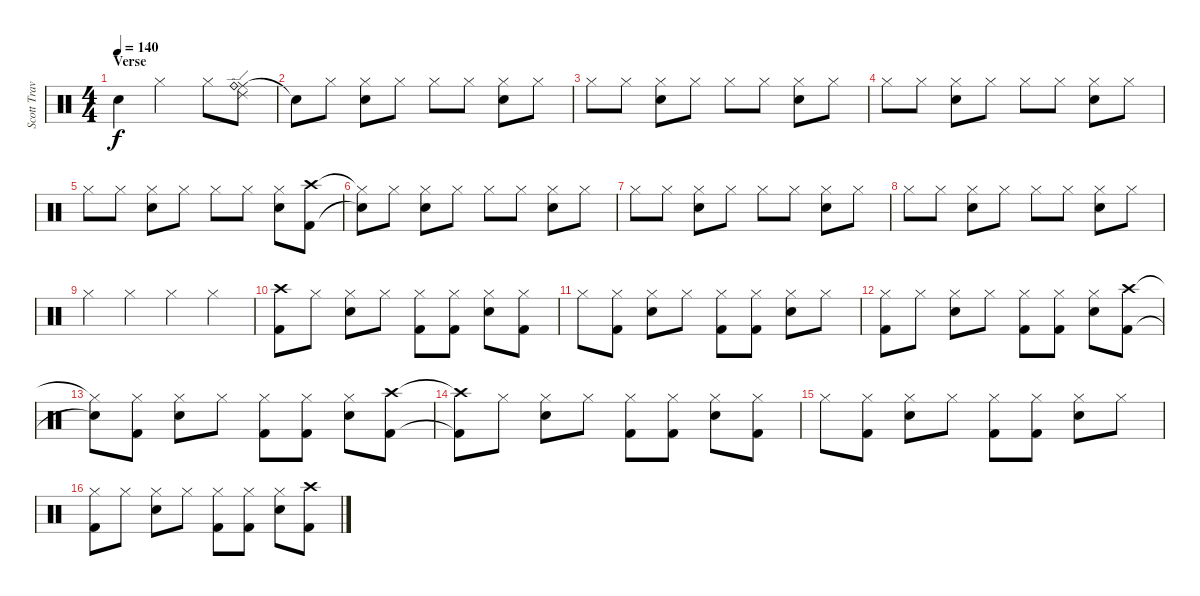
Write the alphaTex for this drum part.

\track ("Scott Travis" "Scott Trav") {instrument percussion}
\staff {score}
\articulation defaults
\ts (4 4)
\section ("" "Verse")
\tempo 140
\clef neutral
\ks c "Snare (hit)"{t}.4{dy f} "Hi-Hat (closed)".2 "Hi-Hat (closed)".8
("Ride (middle)" "Ride (bell)" "Ride (edge) 2").8 |
"Snare (hit)"{t}.8 "Hi-Hat (closed)".8 ("Hi-Hat (closed)" "Snare (hit) 2").8 "Hi-Hat (closed)".8 "Hi-Hat (closed)".8 "Hi-Hat (closed)".8 ("Hi-Hat (closed)" "Snare (hit) 2").8 "Hi-Hat (closed)".8 |
"Hi-Hat (closed)".8 "Hi-Hat (closed)".8 ("Hi-Hat (closed)" "Snare (hit) 2").8 "Hi-Hat (closed)".8 "Hi-Hat (closed)".8 "Hi-Hat (closed)".8 ("Hi-Hat (closed)" "Snare (hit) 2").8 "Hi-Hat (closed)".8 |
"Hi-Hat (closed)".8 "Hi-Hat (closed)".8 ("Hi-Hat (closed)" "Snare (hit) 2").8 "Hi-Hat (closed)".8 "Hi-Hat (closed)".8 "Hi-Hat (closed)".8 ("Hi-Hat (closed)" "Snare (hit) 2").8 "Hi-Hat (closed)".8 |
"Hi-Hat (closed)".8 "Hi-Hat (closed)".8 ("Hi-Hat (closed)" "Snare (hit) 2").8 "Hi-Hat (closed)".8 "Hi-Hat (closed)".8 "Hi-Hat (closed)".8 ("Hi-Hat (closed)" "Snare (hit) 2").8 ("Crash high (hit)" "Kick (hit) 2").8 |
("Hi-Hat (closed)"{t} "Snare (hit)"{t}).8 "Hi-Hat (closed)".8 ("Hi-Hat (closed)" "Snare (hit) 2").8 "Hi-Hat (closed)".8 "Hi-Hat (closed)".8 "Hi-Hat (closed)".8 ("Hi-Hat (closed)" "Snare (hit) 2").8 "Hi-Hat (closed)".8 |
"Hi-Hat (closed)".8 "Hi-Hat (closed)".8 ("Hi-Hat (closed)" "Snare (hit) 2").8 "Hi-Hat (closed)".8 "Hi-Hat (closed)".8 "Hi-Hat (closed)".8 ("Hi-Hat (closed)" "Snare (hit) 2").8 "Hi-Hat (closed)".8 |
"Hi-Hat (closed)".8 "Hi-Hat (closed)".8 ("Hi-Hat (closed)" "Snare (hit) 2").8 "Hi-Hat (closed)".8 "Hi-Hat (closed)".8 "Hi-Hat (closed)".8 ("Hi-Hat (closed)" "Snare (hit) 2").8 "Hi-Hat (closed)".8 |
"Hi-Hat (closed)".4 "Hi-Hat (closed)".4 "Hi-Hat (closed)".4 "Hi-Hat (closed)".4 |
("Crash high (hit)" "Kick (hit) 2").8 "Hi-Hat (closed)".8 ("Hi-Hat (closed)" "Snare (hit) 2").8 "Hi-Hat (closed)".8 ("Hi-Hat (closed)" "Kick (hit) 2").8 ("Hi-Hat (closed)" "Kick (hit) 2").8 ("Hi-Hat (closed)" "Snare (hit) 2").8 ("Hi-Hat (closed)" "Kick (hit) 2").8 |
"Hi-Hat (closed)".8 ("Hi-Hat (closed)" "Kick (hit) 2").8 ("Hi-Hat (closed)" "Snare (hit) 2").8 "Hi-Hat (closed)".8 ("Hi-Hat (closed)" "Kick (hit) 2").8 ("Hi-Hat (closed)" "Kick (hit) 2").8 ("Hi-Hat (closed)" "Snare (hit) 2").8 "Hi-Hat (closed)".8 |
("Hi-Hat (closed)" "Kick (hit) 2").8 "Hi-Hat (closed)".8 ("Hi-Hat (closed)" "Snare (hit) 2").8 "Hi-Hat (closed)".8 ("Hi-Hat (closed)" "Kick (hit) 2").8 ("Hi-Hat (closed)" "Kick (hit) 2").8 ("Hi-Hat (closed)" "Snare (hit) 2").8 ("Crash high (hit)" "Kick (hit) 2").8 |
("Hi-Hat (closed)"{t} "Snare (hit)"{t}).8 ("Hi-Hat (closed)" "Kick (hit) 2").8 ("Hi-Hat (closed)" "Snare (hit) 2").8 "Hi-Hat (closed)".8 ("Hi-Hat (closed)" "Kick (hit) 2").8 ("Hi-Hat (closed)" "Kick (hit) 2").8 ("Hi-Hat (closed)" "Snare (hit) 2").8 ("Crash high (hit)" "Kick (hit) 2").8 |
("Crash high (hit)"{t} "Kick (hit) 2"{t}).8 "Hi-Hat (closed)".8 ("Hi-Hat (closed)" "Snare (hit) 2").8 "Hi-Hat (closed)".8 ("Hi-Hat (closed)" "Kick (hit) 2").8 ("Hi-Hat (closed)" "Kick (hit) 2").8 ("Hi-Hat (closed)" "Snare (hit) 2").8 ("Hi-Hat (closed)" "Kick (hit) 2").8 |
"Hi-Hat (closed)".8 ("Hi-Hat (closed)" "Kick (hit) 2").8 ("Hi-Hat (closed)" "Snare (hit) 2").8 "Hi-Hat (closed)".8 ("Hi-Hat (closed)" "Kick (hit) 2").8 ("Hi-Hat (closed)" "Kick (hit) 2").8 ("Hi-Hat (closed)" "Snare (hit) 2").8 "Hi-Hat (closed)".8 |
("Hi-Hat (closed)" "Kick (hit) 2").8 "Hi-Hat (closed)".8 ("Hi-Hat (closed)" "Snare (hit) 2").8 "Hi-Hat (closed)".8 ("Hi-Hat (closed)" "Kick (hit) 2").8 ("Hi-Hat (closed)" "Kick (hit) 2").8 ("Hi-Hat (closed)" "Snare (hit) 2").8 ("Crash high (hit)" "Kick (hit) 2").8
